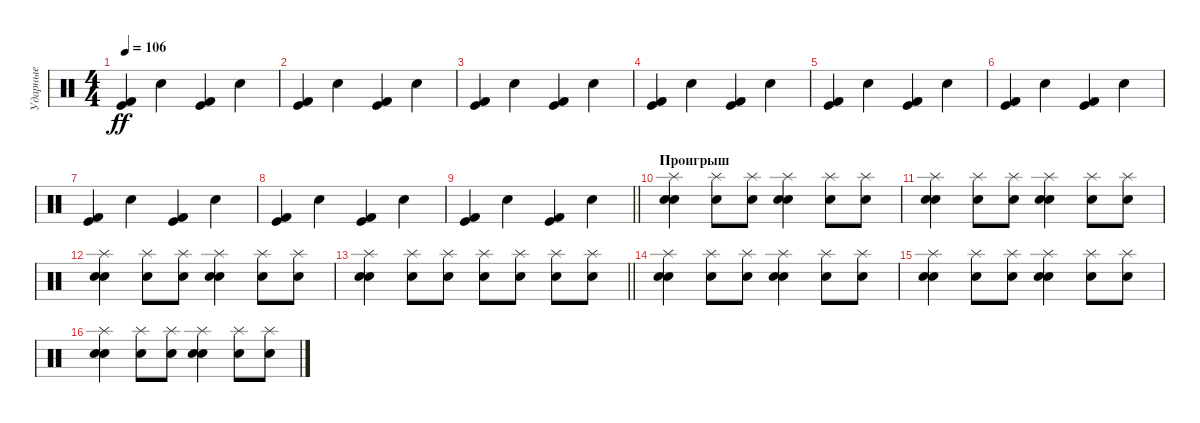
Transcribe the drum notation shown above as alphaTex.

\track ("Ударные" "Ударные") {instrument percussion}
\staff {score}
\articulation defaults
\ts (4 4)
\tempo 106
\clef neutral
\ks c
("Kick (hit) 2" "Kick (hit)").4{dy ff} "Snare (hit) 2".4 ("Kick (hit) 2" "Kick (hit)").4 "Snare (hit) 2".4 |
("Kick (hit) 2" "Kick (hit)").4 "Snare (hit) 2".4 ("Kick (hit) 2" "Kick (hit)").4 "Snare (hit) 2".4 |
("Kick (hit) 2" "Kick (hit)").4 "Snare (hit) 2".4 ("Kick (hit) 2" "Kick (hit)").4 "Snare (hit) 2".4 |
("Kick (hit) 2" "Kick (hit)").4 "Snare (hit) 2".4 ("Kick (hit) 2" "Kick (hit)").4 "Snare (hit) 2".4 |
("Kick (hit) 2" "Kick (hit)").4 "Snare (hit) 2".4 ("Kick (hit) 2" "Kick (hit)").4 "Snare (hit) 2".4 |
("Kick (hit) 2" "Kick (hit)").4 "Snare (hit) 2".4 ("Kick (hit) 2" "Kick (hit)").4 "Snare (hit) 2".4 |
("Kick (hit) 2" "Kick (hit)").4 "Snare (hit) 2".4 ("Kick (hit) 2" "Kick (hit)").4 "Snare (hit) 2".4 |
("Kick (hit) 2" "Kick (hit)").4 "Snare (hit) 2".4 ("Kick (hit) 2" "Kick (hit)").4 "Snare (hit) 2".4 |
\barLineRight lightlight
("Kick (hit) 2" "Kick (hit)").4 "Snare (hit) 2".4 ("Kick (hit) 2" "Kick (hit)").4 "Snare (hit) 2".4 |
\section ("" "Проигрыш")
("Snare (hit) 2" "Electric Snare (hit)" "Splash (hit)").4 ("Electric Snare (hit)" "Splash (hit)").8 ("Electric Snare (hit)" "Splash (hit)").8 ("Snare (hit) 2" "Electric Snare (hit)" "Splash (hit)").4 ("Electric Snare (hit)" "Splash (hit)").8 ("Electric Snare (hit)" "Splash (hit)").8 |
("Snare (hit) 2" "Electric Snare (hit)" "Splash (hit)").4 ("Electric Snare (hit)" "Splash (hit)").8 ("Electric Snare (hit)" "Splash (hit)").8 ("Snare (hit) 2" "Electric Snare (hit)" "Splash (hit)").4 ("Electric Snare (hit)" "Splash (hit)").8 ("Electric Snare (hit)" "Splash (hit)").8 |
("Snare (hit) 2" "Electric Snare (hit)" "Splash (hit)").4 ("Electric Snare (hit)" "Splash (hit)").8 ("Electric Snare (hit)" "Splash (hit)").8 ("Snare (hit) 2" "Electric Snare (hit)" "Splash (hit)").4 ("Electric Snare (hit)" "Splash (hit)").8 ("Electric Snare (hit)" "Splash (hit)").8 |
\barLineRight lightlight
("Snare (hit) 2" "Electric Snare (hit)" "Splash (hit)").4 ("Electric Snare (hit)" "Splash (hit)").8 ("Electric Snare (hit)" "Splash (hit)").8 ("Electric Snare (hit)" "Splash (hit)").8 ("Electric Snare (hit)" "Splash (hit)").8 ("Electric Snare (hit)" "Splash (hit)").8 ("Electric Snare (hit)" "Splash (hit)").8 |
("Snare (hit) 2" "Electric Snare (hit)" "Splash (hit)").4 ("Electric Snare (hit)" "Splash (hit)").8 ("Electric Snare (hit)" "Splash (hit)").8 ("Snare (hit) 2" "Electric Snare (hit)" "Splash (hit)").4 ("Electric Snare (hit)" "Splash (hit)").8 ("Electric Snare (hit)" "Splash (hit)").8 |
("Snare (hit) 2" "Electric Snare (hit)" "Splash (hit)").4 ("Electric Snare (hit)" "Splash (hit)").8 ("Electric Snare (hit)" "Splash (hit)").8 ("Snare (hit) 2" "Electric Snare (hit)" "Splash (hit)").4 ("Electric Snare (hit)" "Splash (hit)").8 ("Electric Snare (hit)" "Splash (hit)").8 |
("Snare (hit) 2" "Electric Snare (hit)" "Splash (hit)").4 ("Electric Snare (hit)" "Splash (hit)").8 ("Electric Snare (hit)" "Splash (hit)").8 ("Snare (hit) 2" "Electric Snare (hit)" "Splash (hit)").4 ("Electric Snare (hit)" "Splash (hit)").8 ("Electric Snare (hit)" "Splash (hit)").8
